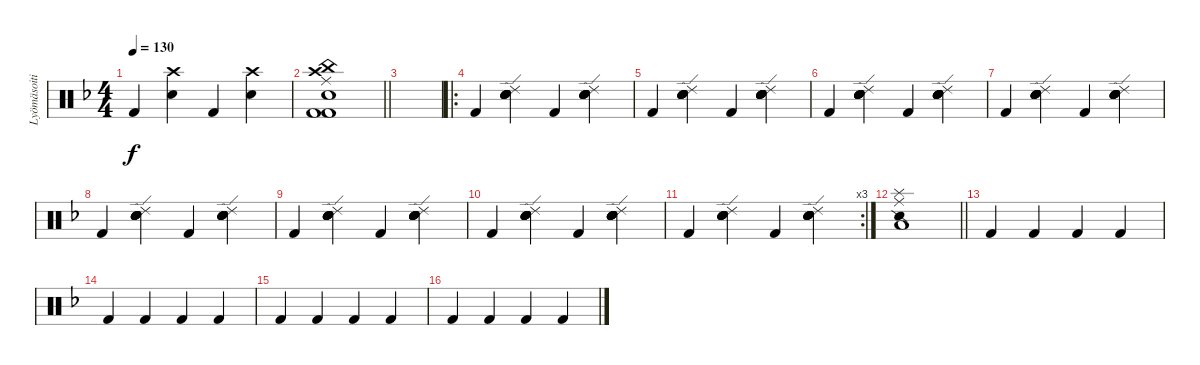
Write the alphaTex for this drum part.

\track ("Lyömäsoitin" "Lyömäsoiti") {instrument percussion}
\staff {score}
\articulation defaults
\ts (4 4)
\tempo 130
\clef neutral
\ks f "Kick (hit) 2".4{dy f}
("Electric Snare (hit)" "Crash high (hit)").4 "Kick (hit) 2".4 ("Electric Snare (hit)" "Crash high (hit)").4 |
\barLineRight lightlight
("Electric Snare (hit)" "China (hit)" "Ride (middle)" "Crash high (hit)" "Kick (hit) 2" "Kick (hit) 2").1 |
|
\ro "Kick (hit) 2".4
("Hand Clap (hit)" "Ride (edge) 2" "Metronome (bell)" "Metronome (bell)" "Metronome (bell)" "Metronome (bell)").4 "Kick (hit) 2".4 ("Hand Clap (hit)" "Ride (edge) 2" "Metronome (bell)" "Metronome (bell)" "Metronome (bell)" "Metronome (bell)").4 |
"Kick (hit) 2".4 ("Hand Clap (hit)" "Ride (edge) 2" "Metronome (bell)" "Metronome (bell)" "Metronome (bell)" "Metronome (bell)").4 "Kick (hit) 2".4 ("Hand Clap (hit)" "Ride (edge) 2" "Metronome (bell)" "Metronome (bell)" "Metronome (bell)" "Metronome (bell)").4 |
"Kick (hit) 2".4 ("Hand Clap (hit)" "Ride (edge) 2" "Metronome (bell)" "Metronome (bell)" "Metronome (bell)" "Metronome (bell)").4 "Kick (hit) 2".4 ("Hand Clap (hit)" "Ride (edge) 2" "Metronome (bell)" "Metronome (bell)" "Metronome (bell)" "Metronome (bell)").4 |
"Kick (hit) 2".4 ("Hand Clap (hit)" "Ride (edge) 2" "Metronome (bell)" "Metronome (bell)" "Metronome (bell)" "Metronome (bell)").4 "Kick (hit) 2".4 ("Hand Clap (hit)" "Ride (edge) 2" "Metronome (bell)" "Metronome (bell)" "Metronome (bell)" "Metronome (bell)").4 |
"Kick (hit) 2".4 ("Hand Clap (hit)" "Ride (edge) 2" "Metronome (bell)" "Metronome (bell)" "Metronome (bell)" "Metronome (bell)").4 "Kick (hit) 2".4 ("Hand Clap (hit)" "Ride (edge) 2" "Metronome (bell)" "Metronome (bell)" "Metronome (bell)" "Metronome (bell)").4 |
"Kick (hit) 2".4 ("Hand Clap (hit)" "Ride (edge) 2" "Metronome (bell)" "Metronome (bell)" "Metronome (bell)" "Metronome (bell)").4 "Kick (hit) 2".4 ("Hand Clap (hit)" "Ride (edge) 2" "Metronome (bell)" "Metronome (bell)" "Metronome (bell)" "Metronome (bell)").4 |
"Kick (hit) 2".4 ("Hand Clap (hit)" "Ride (edge) 2" "Metronome (bell)" "Metronome (bell)" "Metronome (bell)" "Metronome (bell)").4 "Kick (hit) 2".4 ("Hand Clap (hit)" "Ride (edge) 2" "Metronome (bell)" "Metronome (bell)" "Metronome (bell)" "Metronome (bell)").4 |
\rc 3 "Kick (hit) 2".4
("Hand Clap (hit)" "Ride (edge) 2" "Metronome (bell)" "Metronome (bell)" "Metronome (bell)" "Metronome (bell)").4 "Kick (hit) 2".4 ("Hand Clap (hit)" "Ride (edge) 2" "Metronome (bell)" "Metronome (bell)" "Metronome (bell)" "Metronome (bell)").4 |
\barLineRight lightlight
("Low Floor Tom (hit)" "Snare (side stick) 2" "Splash (hit)" "Ride (middle)").1 |
"Kick (hit) 2".4 "Kick (hit) 2".4 "Kick (hit) 2".4 "Kick (hit) 2".4 |
"Kick (hit) 2".4 "Kick (hit) 2".4 "Kick (hit) 2".4 "Kick (hit) 2".4 |
"Kick (hit) 2".4 "Kick (hit) 2".4 "Kick (hit) 2".4 "Kick (hit) 2".4 |
"Kick (hit) 2".4 "Kick (hit) 2".4 "Kick (hit) 2".4 "Kick (hit) 2".4
